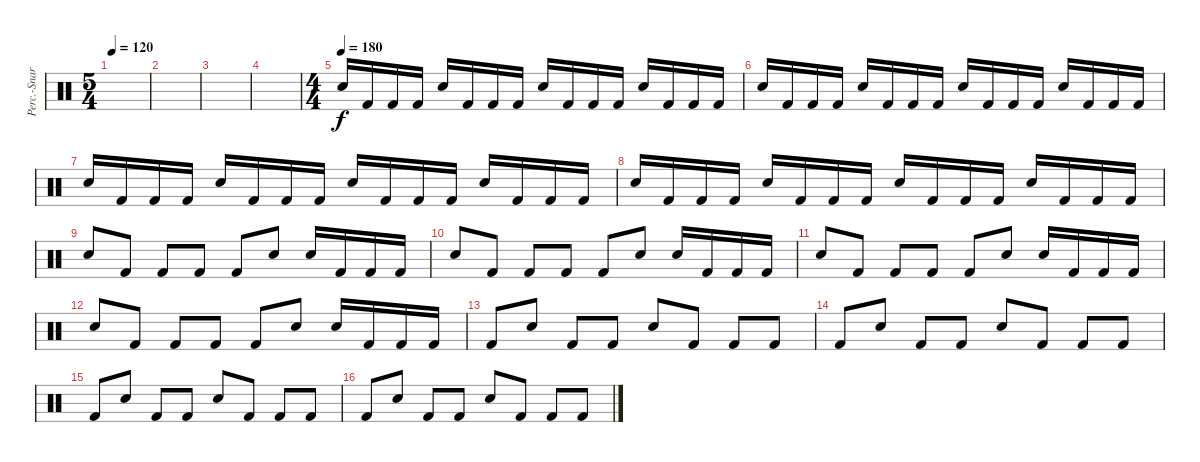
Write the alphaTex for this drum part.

\track ("Perc.-Snare/Kick" "Perc.-Snar") {instrument percussion}
\staff {score}
\articulation defaults
\ts (5 4)
\tempo 120
\clef neutral
\ks c
|
|
|
|
\ts (4 4)
\tempo (180)
"Snare (hit) 2".16 "Kick (hit) 2".16 "Kick (hit) 2".16 "Kick (hit) 2".16 "Snare (hit) 2".16 "Kick (hit) 2".16 "Kick (hit) 2".16 "Kick (hit) 2".16 "Snare (hit) 2".16 "Kick (hit) 2".16 "Kick (hit) 2".16 "Kick (hit) 2".16 "Snare (hit) 2".16 "Kick (hit) 2".16 "Kick (hit) 2".16 "Kick (hit) 2".16 |
"Snare (hit) 2".16 "Kick (hit) 2".16 "Kick (hit) 2".16 "Kick (hit) 2".16 "Snare (hit) 2".16 "Kick (hit) 2".16 "Kick (hit) 2".16 "Kick (hit) 2".16 "Snare (hit) 2".16 "Kick (hit) 2".16 "Kick (hit) 2".16 "Kick (hit) 2".16 "Snare (hit) 2".16 "Kick (hit) 2".16 "Kick (hit) 2".16 "Kick (hit) 2".16 |
"Snare (hit) 2".16 "Kick (hit) 2".16 "Kick (hit) 2".16 "Kick (hit) 2".16 "Snare (hit) 2".16 "Kick (hit) 2".16 "Kick (hit) 2".16 "Kick (hit) 2".16 "Snare (hit) 2".16 "Kick (hit) 2".16 "Kick (hit) 2".16 "Kick (hit) 2".16 "Snare (hit) 2".16 "Kick (hit) 2".16 "Kick (hit) 2".16 "Kick (hit) 2".16 |
"Snare (hit) 2".16 "Kick (hit) 2".16 "Kick (hit) 2".16 "Kick (hit) 2".16 "Snare (hit) 2".16 "Kick (hit) 2".16 "Kick (hit) 2".16 "Kick (hit) 2".16 "Snare (hit) 2".16 "Kick (hit) 2".16 "Kick (hit) 2".16 "Kick (hit) 2".16 "Snare (hit) 2".16 "Kick (hit) 2".16 "Kick (hit) 2".16 "Kick (hit) 2".16 |
"Snare (hit) 2".8 "Kick (hit) 2".8 "Kick (hit) 2".8 "Kick (hit) 2".8 "Kick (hit) 2".8 "Snare (hit) 2".8 "Snare (hit) 2".16 "Kick (hit) 2".16 "Kick (hit) 2".16 "Kick (hit) 2".16 |
"Snare (hit) 2".8 "Kick (hit) 2".8 "Kick (hit) 2".8 "Kick (hit) 2".8 "Kick (hit) 2".8 "Snare (hit) 2".8 "Snare (hit) 2".16 "Kick (hit) 2".16 "Kick (hit) 2".16 "Kick (hit) 2".16 |
"Snare (hit) 2".8 "Kick (hit) 2".8 "Kick (hit) 2".8 "Kick (hit) 2".8 "Kick (hit) 2".8 "Snare (hit) 2".8 "Snare (hit) 2".16 "Kick (hit) 2".16 "Kick (hit) 2".16 "Kick (hit) 2".16 |
"Snare (hit) 2".8 "Kick (hit) 2".8 "Kick (hit) 2".8 "Kick (hit) 2".8 "Kick (hit) 2".8 "Snare (hit) 2".8 "Snare (hit) 2".16 "Kick (hit) 2".16 "Kick (hit) 2".16 "Kick (hit) 2".16 |
"Kick (hit) 2".8 "Snare (hit) 2".8 "Kick (hit) 2".8 "Kick (hit) 2".8 "Snare (hit) 2".8 "Kick (hit) 2".8 "Kick (hit) 2".8 "Kick (hit) 2".8 |
"Kick (hit) 2".8 "Snare (hit) 2".8 "Kick (hit) 2".8 "Kick (hit) 2".8 "Snare (hit) 2".8 "Kick (hit) 2".8 "Kick (hit) 2".8 "Kick (hit) 2".8 |
"Kick (hit) 2".8 "Snare (hit) 2".8 "Kick (hit) 2".8 "Kick (hit) 2".8 "Snare (hit) 2".8 "Kick (hit) 2".8 "Kick (hit) 2".8 "Kick (hit) 2".8 |
"Kick (hit) 2".8 "Snare (hit) 2".8 "Kick (hit) 2".8 "Kick (hit) 2".8 "Snare (hit) 2".8 "Kick (hit) 2".8 "Kick (hit) 2".8 "Kick (hit) 2".8
